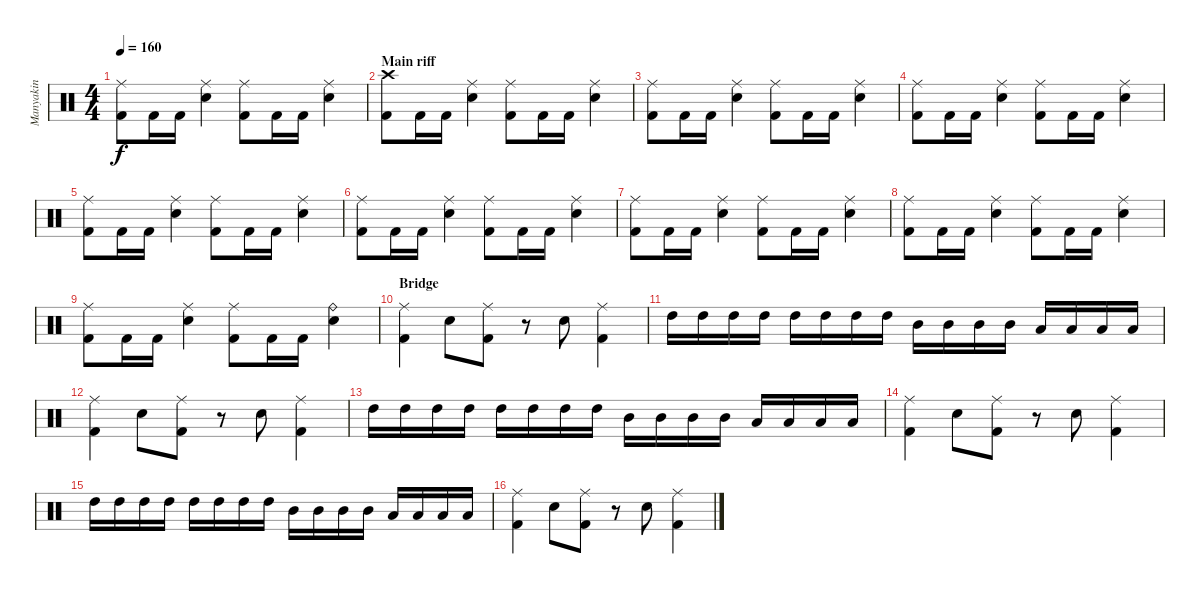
\track ("Manyakin" "Manyakin") {instrument percussion}
\staff {score}
\articulation defaults
\ts (4 4)
\tempo 160
\clef neutral
\ks c
("Kick (hit) 2" "Ride (middle)").8{dy f} "Kick (hit) 2".16 "Kick (hit) 2".16 ("Snare (hit) 2" "Ride (middle)").4 ("Kick (hit) 2" "Ride (middle)").8 "Kick (hit) 2".16 "Kick (hit) 2".16 ("Snare (hit) 2" "Ride (middle)").4 |
\section ("" "Main riff")
("Kick (hit) 2" "Crash high (hit)").8 "Kick (hit) 2".16 "Kick (hit) 2".16 ("Snare (hit) 2" "Ride (middle)").4 ("Kick (hit) 2" "Ride (middle)").8 "Kick (hit) 2".16 "Kick (hit) 2".16 ("Snare (hit) 2" "Ride (middle)").4 |
("Kick (hit) 2" "Ride (middle)").8 "Kick (hit) 2".16 "Kick (hit) 2".16 ("Snare (hit) 2" "Ride (middle)").4 ("Kick (hit) 2" "Ride (middle)").8 "Kick (hit) 2".16 "Kick (hit) 2".16 ("Snare (hit) 2" "Ride (middle)").4 |
("Kick (hit) 2" "Ride (middle)").8 "Kick (hit) 2".16 "Kick (hit) 2".16 ("Snare (hit) 2" "Ride (middle)").4 ("Kick (hit) 2" "Ride (middle)").8 "Kick (hit) 2".16 "Kick (hit) 2".16 ("Snare (hit) 2" "Ride (middle)").4 |
("Kick (hit) 2" "Ride (middle)").8 "Kick (hit) 2".16 "Kick (hit) 2".16 ("Snare (hit) 2" "Ride (middle)").4 ("Kick (hit) 2" "Ride (middle)").8 "Kick (hit) 2".16 "Kick (hit) 2".16 ("Snare (hit) 2" "Ride (middle)").4 |
("Kick (hit) 2" "Ride (middle)").8 "Kick (hit) 2".16 "Kick (hit) 2".16 ("Snare (hit) 2" "Ride (middle)").4 ("Kick (hit) 2" "Ride (middle)").8 "Kick (hit) 2".16 "Kick (hit) 2".16 ("Snare (hit) 2" "Ride (middle)").4 |
("Kick (hit) 2" "Ride (middle)").8 "Kick (hit) 2".16 "Kick (hit) 2".16 ("Snare (hit) 2" "Ride (middle)").4 ("Kick (hit) 2" "Ride (middle)").8 "Kick (hit) 2".16 "Kick (hit) 2".16 ("Snare (hit) 2" "Ride (middle)").4 |
("Kick (hit) 2" "Ride (middle)").8 "Kick (hit) 2".16 "Kick (hit) 2".16 ("Snare (hit) 2" "Ride (middle)").4 ("Kick (hit) 2" "Ride (middle)").8 "Kick (hit) 2".16 "Kick (hit) 2".16 ("Snare (hit) 2" "Ride (middle)").4 |
("Kick (hit) 2" "Ride (middle)").8 "Kick (hit) 2".16 "Kick (hit) 2".16 ("Snare (hit) 2" "Ride (middle)").4 ("Kick (hit) 2" "Ride (middle)").8 "Kick (hit) 2".16 "Kick (hit) 2".16 ("Snare (hit) 2" "Ride (bell)").4 |
\section ("" "Bridge")
("Kick (hit) 2" "Ride (middle)").4 "Snare (hit) 2".8 ("Kick (hit) 2" "Ride (middle)").8 r.8 "Snare (hit) 2".8 ("Kick (hit) 2" "Ride (middle)").4 |
"High Tom (hit)".16 "High Tom (hit)".16 "High Tom (hit)".16 "High Tom (hit)".16 "High Tom (hit)".16 "High Tom (hit)".16 "High Tom (hit)".16 "High Tom (hit)".16 "Mid Tom (hit)".16 "Mid Tom (hit)".16 "Mid Tom (hit)".16 "Mid Tom (hit)".16 "Low Tom (hit)".16 "Low Tom (hit)".16 "Low Tom (hit)".16 "Low Tom (hit)".16 |
("Kick (hit) 2" "Ride (middle)").4 "Snare (hit) 2".8 ("Kick (hit) 2" "Ride (middle)").8 r.8 "Snare (hit) 2".8 ("Kick (hit) 2" "Ride (middle)").4 |
"High Tom (hit)".16 "High Tom (hit)".16 "High Tom (hit)".16 "High Tom (hit)".16 "High Tom (hit)".16 "High Tom (hit)".16 "High Tom (hit)".16 "High Tom (hit)".16 "Mid Tom (hit)".16 "Mid Tom (hit)".16 "Mid Tom (hit)".16 "Mid Tom (hit)".16 "Low Tom (hit)".16 "Low Tom (hit)".16 "Low Tom (hit)".16 "Low Tom (hit)".16 |
("Kick (hit) 2" "Ride (middle)").4 "Snare (hit) 2".8 ("Kick (hit) 2" "Ride (middle)").8 r.8 "Snare (hit) 2".8 ("Kick (hit) 2" "Ride (middle)").4 |
"High Tom (hit)".16 "High Tom (hit)".16 "High Tom (hit)".16 "High Tom (hit)".16 "High Tom (hit)".16 "High Tom (hit)".16 "High Tom (hit)".16 "High Tom (hit)".16 "Mid Tom (hit)".16 "Mid Tom (hit)".16 "Mid Tom (hit)".16 "Mid Tom (hit)".16 "Low Tom (hit)".16 "Low Tom (hit)".16 "Low Tom (hit)".16 "Low Tom (hit)".16 |
("Kick (hit) 2" "Ride (middle)").4 "Snare (hit) 2".8 ("Kick (hit) 2" "Ride (middle)").8 r.8 "Snare (hit) 2".8 ("Kick (hit) 2" "Ride (middle)").4
